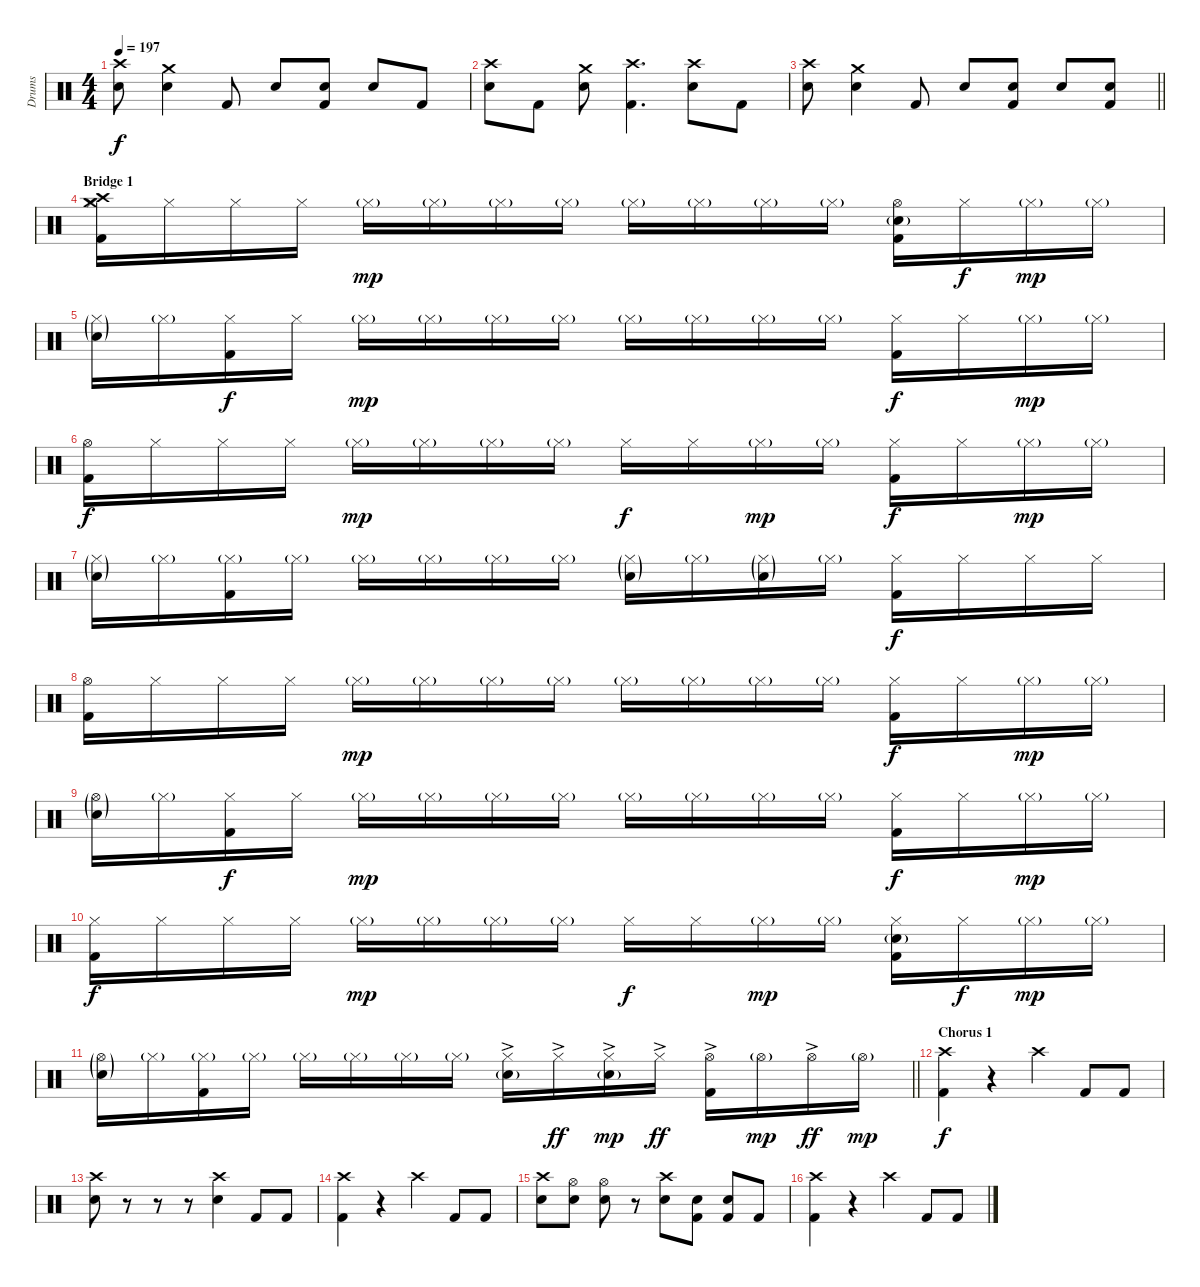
\track ("Drums" "Drums") {instrument percussion}
\staff {score}
\articulation defaults
\ts (4 4)
\tempo 197
\clef neutral
\ks c
("Crash high (hit)" "Electric Snare (hit)").8{dy f} ("Crash medium (hit)" "Electric Snare (hit)").4 "Kick (hit) 2".8 "Electric Snare (hit)".8 ("Electric Snare (hit)" "Kick (hit) 2").8 "Electric Snare (hit)".8 "Kick (hit) 2".8 |
("Crash high (hit)" "Electric Snare (hit)").8 "Kick (hit) 2".8 ("Crash medium (hit)" "Electric Snare (hit)").8 ("Crash high (hit)" "Kick (hit) 2").4{d} ("Crash high (hit)" "Electric Snare (hit)").8 "Kick (hit) 2".8 |
\barLineRight lightlight
("Crash high (hit)" "Electric Snare (hit)").8 ("Crash medium (hit)" "Electric Snare (hit)").4 "Kick (hit) 2".8 "Electric Snare (hit)".8 ("Electric Snare (hit)" "Kick (hit) 2").8 "Electric Snare (hit)".8 ("Electric Snare (hit)" "Kick (hit) 2").8 |
\section ("" "Bridge 1")
("Crash medium (hit)" "Crash high (hit)" "Hi-Hat (closed)" "Kick (hit) 2").16 "Hi-Hat (closed)".16 "Hi-Hat (closed)".16 "Hi-Hat (closed)".16 "Hi-Hat (closed)"{g}.16{dy mp} "Hi-Hat (closed)"{g}.16 "Hi-Hat (closed)"{g}.16 "Hi-Hat (closed)"{g}.16 "Hi-Hat (closed)"{g}.16 "Hi-Hat (closed)"{g}.16 "Hi-Hat (closed)"{g}.16 "Hi-Hat (closed)"{g}.16 ("Hi-Hat (open)" "Snare (hit) 2"{g} "Kick (hit) 2").16 "Hi-Hat (closed)".16{dy f} "Hi-Hat (closed)"{g}.16{dy mp} "Hi-Hat (closed)"{g}.16 |
("Hi-Hat (closed)"{g} "Snare (hit) 2"{g}).16 "Hi-Hat (closed)"{g}.16 ("Hi-Hat (closed)" "Kick (hit) 2").16{dy f} "Hi-Hat (closed)".16 "Hi-Hat (closed)"{g}.16{dy mp} "Hi-Hat (closed)"{g}.16 "Hi-Hat (closed)"{g}.16 "Hi-Hat (closed)"{g}.16 "Hi-Hat (closed)"{g}.16 "Hi-Hat (closed)"{g}.16 "Hi-Hat (closed)"{g}.16 "Hi-Hat (closed)"{g}.16 ("Hi-Hat (closed)" "Kick (hit) 2").16{dy f} "Hi-Hat (closed)".16 "Hi-Hat (closed)"{g}.16{dy mp} "Hi-Hat (closed)"{g}.16 |
("Hi-Hat (open)" "Kick (hit) 2").16{dy f} "Hi-Hat (closed)".16 "Hi-Hat (closed)".16 "Hi-Hat (closed)".16 "Hi-Hat (closed)"{g}.16{dy mp} "Hi-Hat (closed)"{g}.16 "Hi-Hat (closed)"{g}.16 "Hi-Hat (closed)"{g}.16 "Hi-Hat (closed)".16{dy f} "Hi-Hat (closed)".16 "Hi-Hat (closed)"{g}.16{dy mp} "Hi-Hat (closed)"{g}.16 ("Hi-Hat (closed)" "Kick (hit) 2").16{dy f} "Hi-Hat (closed)".16 "Hi-Hat (closed)"{g}.16{dy mp} "Hi-Hat (closed)"{g}.16 |
("Hi-Hat (closed)"{g} "Snare (hit) 2"{g}).16 "Hi-Hat (closed)"{g}.16 ("Hi-Hat (closed)"{g} "Kick (hit) 2").16 "Hi-Hat (closed)"{g}.16 "Hi-Hat (closed)"{g}.16 "Hi-Hat (closed)"{g}.16 "Hi-Hat (closed)"{g}.16 "Hi-Hat (closed)"{g}.16 ("Hi-Hat (closed)"{g} "Snare (hit) 2"{g}).16 "Hi-Hat (closed)"{g}.16 ("Hi-Hat (closed)"{g} "Snare (hit) 2"{g}).16 "Hi-Hat (closed)"{g}.16 ("Hi-Hat (closed)" "Kick (hit) 2").16{dy f} "Hi-Hat (closed)".16 "Hi-Hat (closed)".16 "Hi-Hat (closed)".16 |
("Hi-Hat (open)" "Kick (hit) 2").16 "Hi-Hat (closed)".16 "Hi-Hat (closed)".16 "Hi-Hat (closed)".16 "Hi-Hat (closed)"{g}.16{dy mp} "Hi-Hat (closed)"{g}.16 "Hi-Hat (closed)"{g}.16 "Hi-Hat (closed)"{g}.16 "Hi-Hat (closed)"{g}.16 "Hi-Hat (closed)"{g}.16 "Hi-Hat (closed)"{g}.16 "Hi-Hat (closed)"{g}.16 ("Hi-Hat (closed)" "Kick (hit) 2").16{dy f} "Hi-Hat (closed)".16 "Hi-Hat (closed)"{g}.16{dy mp} "Hi-Hat (closed)"{g}.16 |
("Hi-Hat (open)"{g} "Snare (hit) 2"{g}).16 "Hi-Hat (closed)"{g}.16 ("Hi-Hat (closed)" "Kick (hit) 2").16{dy f} "Hi-Hat (closed)".16 "Hi-Hat (closed)"{g}.16{dy mp} "Hi-Hat (closed)"{g}.16 "Hi-Hat (closed)"{g}.16 "Hi-Hat (closed)"{g}.16 "Hi-Hat (closed)"{g}.16 "Hi-Hat (closed)"{g}.16 "Hi-Hat (closed)"{g}.16 "Hi-Hat (closed)"{g}.16 ("Hi-Hat (closed)" "Kick (hit) 2").16{dy f} "Hi-Hat (closed)".16 "Hi-Hat (closed)"{g}.16{dy mp} "Hi-Hat (closed)"{g}.16 |
("Hi-Hat (closed)" "Kick (hit) 2").16{dy f} "Hi-Hat (closed)".16 "Hi-Hat (closed)".16 "Hi-Hat (closed)".16 "Hi-Hat (closed)"{g}.16{dy mp} "Hi-Hat (closed)"{g}.16 "Hi-Hat (closed)"{g}.16 "Hi-Hat (closed)"{g}.16 "Hi-Hat (closed)".16{dy f} "Hi-Hat (closed)".16 "Hi-Hat (closed)"{g}.16{dy mp} "Hi-Hat (closed)"{g}.16 ("Hi-Hat (closed)" "Snare (hit) 2"{g} "Kick (hit) 2").16 "Hi-Hat (closed)".16{dy f} "Hi-Hat (closed)"{g}.16{dy mp} "Hi-Hat (closed)"{g}.16 |
\barLineRight lightlight
("Hi-Hat (open)"{g} "Snare (hit) 2"{g}).16 "Hi-Hat (closed)"{g}.16 ("Hi-Hat (closed)"{g} "Kick (hit) 2").16 "Hi-Hat (closed)"{g}.16 "Hi-Hat (closed)"{g}.16 "Hi-Hat (closed)"{g}.16 "Hi-Hat (closed)"{g}.16 "Hi-Hat (closed)"{g}.16 ("Hi-Hat (closed)"{ac} "Snare (hit) 2"{g}).16 "Hi-Hat (closed)"{ac}.16{dy ff} ("Hi-Hat (closed)"{ac} "Snare (hit) 2"{g}).16{dy mp} "Hi-Hat (closed)"{ac}.16{dy ff} ("Hi-Hat (open)"{ac} "Kick (hit) 2").16 "Hi-Hat (open)"{g}.16{dy mp} "Hi-Hat (open)"{ac}.16{dy ff} "Hi-Hat (open)"{g}.16{dy mp} |
\section ("" "Chorus 1")
("Crash high (hit)" "Kick (hit) 2").4{dy f} r.4 "Crash high (hit)".4 "Kick (hit) 2".8 "Kick (hit) 2".8 |
("Crash high (hit)" "Electric Snare (hit)").8 r.8 r.8 r.8 ("Crash high (hit)" "Electric Snare (hit)").4 "Kick (hit) 2".8 "Kick (hit) 2".8 |
("Crash high (hit)" "Kick (hit) 2").4 r.4 "Crash high (hit)".4 "Kick (hit) 2".8 "Kick (hit) 2".8 |
("Crash high (hit)" "Electric Snare (hit)").8 ("Hi-Hat (open)" "Electric Snare (hit)").8 ("Hi-Hat (open)" "Electric Snare (hit)").8 r.8 ("Crash high (hit)" "Electric Snare (hit)").8 ("Electric Snare (hit)" "Kick (hit) 2").8 ("Electric Snare (hit)" "Kick (hit) 2").8 "Kick (hit) 2".8 |
("Crash high (hit)" "Kick (hit) 2").4 r.4 "Crash high (hit)".4 "Kick (hit) 2".8 "Kick (hit) 2".8
